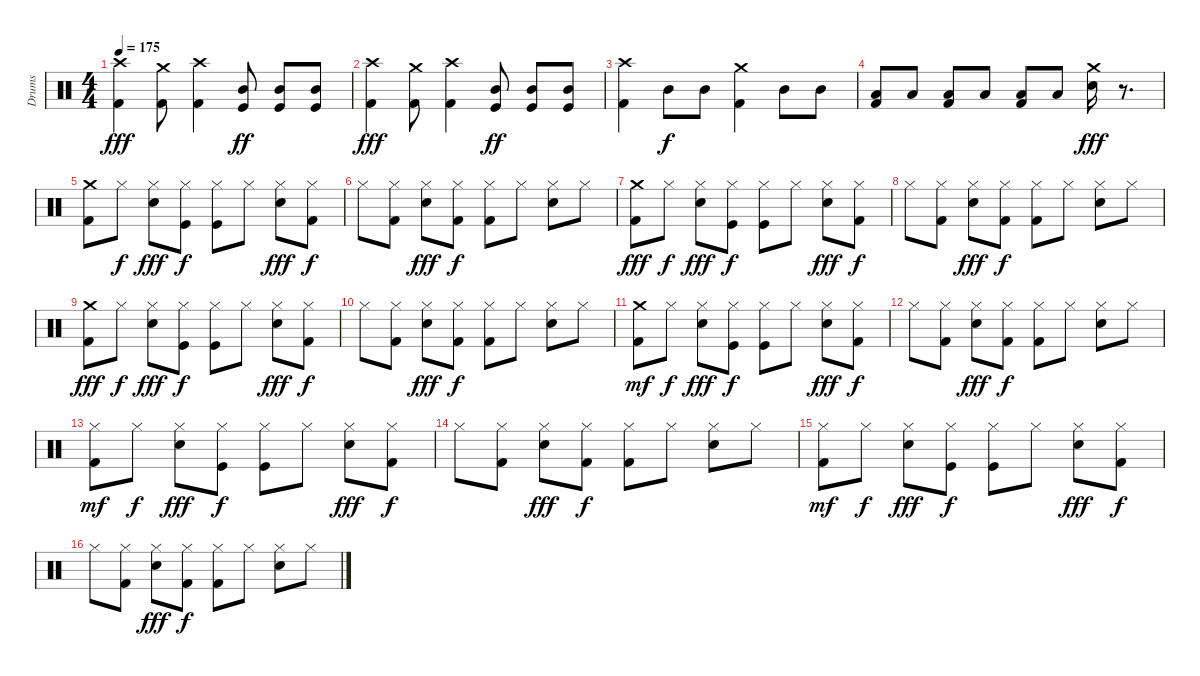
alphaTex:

\track ("Drums" "Drums") {instrument percussion}
\staff {score}
\articulation defaults
\ts (4 4)
\tempo 175
\clef neutral
\ks c
("Crash high (hit)" "Kick (hit) 2").4{dy fff} ("Crash medium (hit)" "Kick (hit) 2").8 ("Crash high (hit)" "Kick (hit) 2").4 ("Mid Tom (hit)" "Kick (hit)").8{dy ff} ("Mid Tom (hit)" "Kick (hit)").8 ("Mid Tom (hit)" "Kick (hit)").8 |
("Crash high (hit)" "Kick (hit) 2").4{dy fff} ("Crash medium (hit)" "Kick (hit) 2").8 ("Crash high (hit)" "Kick (hit) 2").4 ("Mid Tom (hit)" "Kick (hit)").8{dy ff} ("Mid Tom (hit)" "Kick (hit)").8 ("Mid Tom (hit)" "Kick (hit)").8 |
("Crash high (hit)" "Kick (hit) 2").4 "Mid Tom (hit)".8{dy f} "Mid Tom (hit)".8 ("Crash medium (hit)" "Kick (hit) 2").4 "Mid Tom (hit)".8 "Mid Tom (hit)".8 |
("Low Tom (hit)" "Kick (hit) 2").8 "Low Tom (hit)".8 ("Low Tom (hit)" "Kick (hit) 2").8 "Low Tom (hit)".8 ("Low Tom (hit)" "Kick (hit) 2").8 "Low Tom (hit)".8 ("Crash medium (hit)" "Snare (hit) 2").16{dy fff} r.8{d} |
("Crash medium (hit)" "Kick (hit) 2").8 "Hi-Hat (closed)".8{dy f} ("Hi-Hat (closed)" "Snare (hit) 2").8{dy fff} ("Hi-Hat (closed)" "Kick (hit)").8{dy f} ("Hi-Hat (closed)" "Kick (hit)").8 "Hi-Hat (closed)".8 ("Hi-Hat (closed)" "Snare (hit) 2").8{dy fff} ("Hi-Hat (closed)" "Kick (hit) 2").8{dy f} |
"Hi-Hat (closed)".8 ("Hi-Hat (closed)" "Kick (hit) 2").8 ("Hi-Hat (closed)" "Snare (hit) 2").8{dy fff} ("Hi-Hat (closed)" "Kick (hit) 2").8{dy f} ("Hi-Hat (closed)" "Kick (hit) 2").8 "Hi-Hat (closed)".8 ("Hi-Hat (closed)" "Snare (hit) 2").8 "Hi-Hat (closed)".8 |
("Crash medium (hit)" "Kick (hit) 2").8{dy fff} "Hi-Hat (closed)".8{dy f} ("Hi-Hat (closed)" "Snare (hit) 2").8{dy fff} ("Hi-Hat (closed)" "Kick (hit)").8{dy f} ("Hi-Hat (closed)" "Kick (hit)").8 "Hi-Hat (closed)".8 ("Hi-Hat (closed)" "Snare (hit) 2").8{dy fff} ("Hi-Hat (closed)" "Kick (hit) 2").8{dy f} |
"Hi-Hat (closed)".8 ("Hi-Hat (closed)" "Kick (hit) 2").8 ("Hi-Hat (closed)" "Snare (hit) 2").8{dy fff} ("Hi-Hat (closed)" "Kick (hit) 2").8{dy f} ("Hi-Hat (closed)" "Kick (hit) 2").8 "Hi-Hat (closed)".8 ("Hi-Hat (closed)" "Snare (hit) 2").8 "Hi-Hat (closed)".8 |
("Crash medium (hit)" "Kick (hit) 2").8{dy fff} "Hi-Hat (closed)".8{dy f} ("Hi-Hat (closed)" "Snare (hit) 2").8{dy fff} ("Hi-Hat (closed)" "Kick (hit)").8{dy f} ("Hi-Hat (closed)" "Kick (hit)").8 "Hi-Hat (closed)".8 ("Hi-Hat (closed)" "Snare (hit) 2").8{dy fff} ("Hi-Hat (closed)" "Kick (hit) 2").8{dy f} |
"Hi-Hat (closed)".8 ("Hi-Hat (closed)" "Kick (hit) 2").8 ("Hi-Hat (closed)" "Snare (hit) 2").8{dy fff} ("Hi-Hat (closed)" "Kick (hit) 2").8{dy f} ("Hi-Hat (closed)" "Kick (hit) 2").8 "Hi-Hat (closed)".8 ("Hi-Hat (closed)" "Snare (hit) 2").8 "Hi-Hat (closed)".8 |
("Crash medium (hit)" "Kick (hit) 2").8{dy mf} "Hi-Hat (closed)".8{dy f} ("Hi-Hat (closed)" "Snare (hit) 2").8{dy fff} ("Hi-Hat (closed)" "Kick (hit)").8{dy f} ("Hi-Hat (closed)" "Kick (hit)").8 "Hi-Hat (closed)".8 ("Hi-Hat (closed)" "Snare (hit) 2").8{dy fff} ("Hi-Hat (closed)" "Kick (hit) 2").8{dy f} |
"Hi-Hat (closed)".8 ("Hi-Hat (closed)" "Kick (hit) 2").8 ("Hi-Hat (closed)" "Snare (hit) 2").8{dy fff} ("Hi-Hat (closed)" "Kick (hit) 2").8{dy f} ("Hi-Hat (closed)" "Kick (hit) 2").8 "Hi-Hat (closed)".8 ("Hi-Hat (closed)" "Snare (hit) 2").8 "Hi-Hat (closed)".8 |
("Hi-Hat (closed)" "Kick (hit) 2").8{dy mf} "Hi-Hat (closed)".8{dy f} ("Hi-Hat (closed)" "Snare (hit) 2").8{dy fff} ("Hi-Hat (closed)" "Kick (hit)").8{dy f} ("Hi-Hat (closed)" "Kick (hit)").8 "Hi-Hat (closed)".8 ("Hi-Hat (closed)" "Snare (hit) 2").8{dy fff} ("Hi-Hat (closed)" "Kick (hit) 2").8{dy f} |
"Hi-Hat (closed)".8 ("Hi-Hat (closed)" "Kick (hit) 2").8 ("Hi-Hat (closed)" "Snare (hit) 2").8{dy fff} ("Hi-Hat (closed)" "Kick (hit) 2").8{dy f} ("Hi-Hat (closed)" "Kick (hit) 2").8 "Hi-Hat (closed)".8 ("Hi-Hat (closed)" "Snare (hit) 2").8 "Hi-Hat (closed)".8 |
("Hi-Hat (closed)" "Kick (hit) 2").8{dy mf} "Hi-Hat (closed)".8{dy f} ("Hi-Hat (closed)" "Snare (hit) 2").8{dy fff} ("Hi-Hat (closed)" "Kick (hit)").8{dy f} ("Hi-Hat (closed)" "Kick (hit)").8 "Hi-Hat (closed)".8 ("Hi-Hat (closed)" "Snare (hit) 2").8{dy fff} ("Hi-Hat (closed)" "Kick (hit) 2").8{dy f} |
"Hi-Hat (closed)".8 ("Hi-Hat (closed)" "Kick (hit) 2").8 ("Hi-Hat (closed)" "Snare (hit) 2").8{dy fff} ("Hi-Hat (closed)" "Kick (hit) 2").8{dy f} ("Hi-Hat (closed)" "Kick (hit) 2").8 "Hi-Hat (closed)".8 ("Hi-Hat (closed)" "Snare (hit) 2").8 "Hi-Hat (closed)".8
